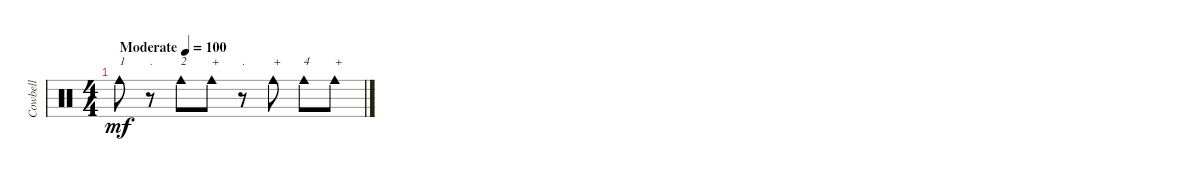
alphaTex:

\track ("Cowbell" "Cowbell") {instrument percussion}
\staff {score}
\articulation defaults
\ts (4 4)
\tempo (100 "Moderate")
\clef neutral
\ks c "Cowbell medium (hit)".8{txt "1" dy mf}
r.8{txt "."} "Cowbell medium (hit)".8{txt "2"} "Cowbell medium (hit)".8{txt "+"} r.8{txt "."} "Cowbell medium (hit)".8{txt "+"} "Cowbell medium (hit)".8{txt "4"} "Cowbell medium (hit)".8{txt "+"}
